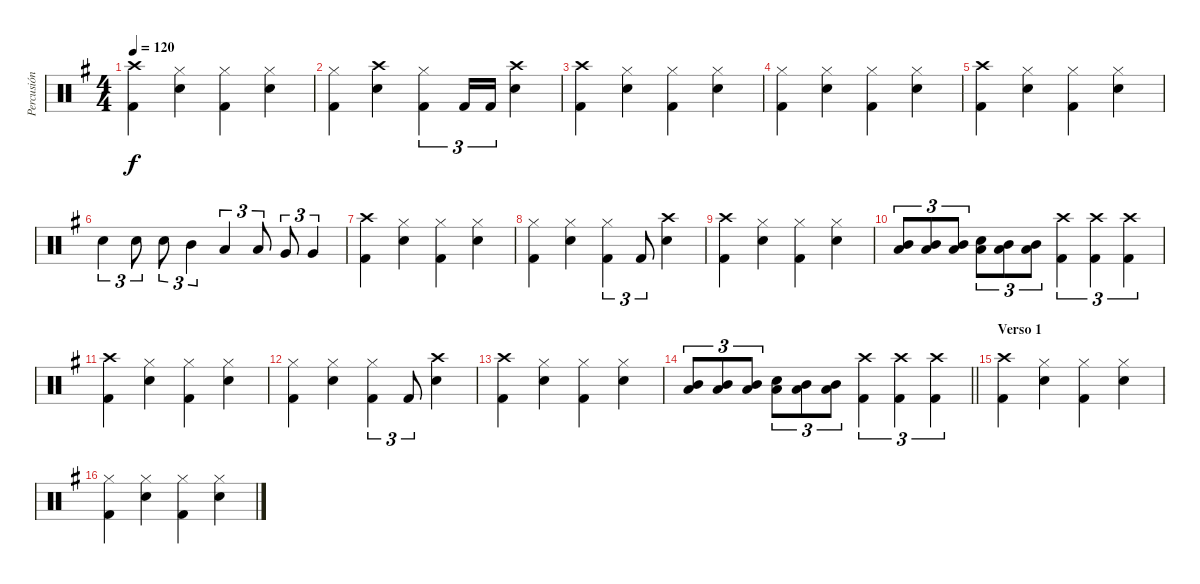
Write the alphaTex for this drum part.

\track ("Percusión" "Percusión") {instrument percussion}
\staff {score}
\articulation defaults
\ts (4 4)
\tempo 120
\clef neutral
\ks g
("Crash high (hit)" "Kick (hit) 2").4{dy f} ("Hi-Hat (closed)" "Snare (hit) 2").4 ("Hi-Hat (closed)" "Kick (hit) 2").4 ("Hi-Hat (closed)" "Snare (hit) 2").4 |
("Hi-Hat (closed)" "Kick (hit) 2").4 ("Crash high (hit)" "Snare (hit) 2").4 ("Hi-Hat (closed)" "Kick (hit) 2").4{tu (3 2)} "Kick (hit) 2".16{tu (3 2)} "Kick (hit) 2".16{tu (3 2)} ("Crash high (hit)" "Snare (hit) 2").4 |
("Crash high (hit)" "Kick (hit) 2").4 ("Hi-Hat (closed)" "Snare (hit) 2").4 ("Hi-Hat (closed)" "Kick (hit) 2").4 ("Hi-Hat (closed)" "Snare (hit) 2").4 |
("Hi-Hat (closed)" "Kick (hit) 2").4 ("Hi-Hat (closed)" "Snare (hit) 2").4 ("Hi-Hat (closed)" "Kick (hit) 2").4 ("Hi-Hat (closed)" "Snare (hit) 2").4 |
("Crash high (hit)" "Kick (hit) 2").4 ("Hi-Hat (closed)" "Snare (hit) 2").4 ("Hi-Hat (closed)" "Kick (hit) 2").4 ("Hi-Hat (closed)" "Snare (hit) 2").4 |
"Snare (hit) 2".4{tu (3 2)} "Snare (hit) 2".8{tu (3 2)} "Snare (hit) 2".8{tu (3 2)} "Mid Tom (hit)".4{tu (3 2)} "Low Tom (hit)".4{tu (3 2)} "Low Tom (hit)".8{tu (3 2)} "Very Low Tom (hit)".8{tu (3 2)} "Very Low Tom (hit)".4{tu (3 2)} |
("Crash high (hit)" "Kick (hit) 2").4 ("Hi-Hat (closed)" "Snare (hit) 2").4 ("Hi-Hat (closed)" "Kick (hit) 2").4 ("Hi-Hat (closed)" "Snare (hit) 2").4 |
("Hi-Hat (closed)" "Kick (hit) 2").4 ("Hi-Hat (closed)" "Snare (hit) 2").4 ("Hi-Hat (closed)" "Kick (hit) 2").4{tu (3 2)} "Kick (hit) 2".8{tu (3 2)} ("Crash high (hit)" "Snare (hit) 2").4 |
("Crash high (hit)" "Kick (hit) 2").4 ("Hi-Hat (closed)" "Snare (hit) 2").4 ("Hi-Hat (closed)" "Kick (hit) 2").4 ("Hi-Hat (closed)" "Snare (hit) 2").4 |
("Low Tom (hit)" "Mid Tom (hit)").8{tu (3 2)} ("Low Tom (hit)" "Mid Tom (hit)").8{tu (3 2)} ("Low Tom (hit)" "Mid Tom (hit)").8{tu (3 2)} ("Low Tom (hit)" "Snare (hit) 2").8{tu (3 2)} ("Low Tom (hit)" "Mid Tom (hit)").8{tu (3 2)} ("Low Tom (hit)" "Mid Tom (hit)").8{tu (3 2)} ("Crash high (hit)" "Kick (hit) 2").4{tu (3 2)} ("Crash high (hit)" "Kick (hit) 2").4{tu (3 2)} ("Crash high (hit)" "Kick (hit) 2").4{tu (3 2)} |
("Crash high (hit)" "Kick (hit) 2").4 ("Hi-Hat (closed)" "Snare (hit) 2").4 ("Hi-Hat (closed)" "Kick (hit) 2").4 ("Hi-Hat (closed)" "Snare (hit) 2").4 |
("Hi-Hat (closed)" "Kick (hit) 2").4 ("Hi-Hat (closed)" "Snare (hit) 2").4 ("Hi-Hat (closed)" "Kick (hit) 2").4{tu (3 2)} "Kick (hit) 2".8{tu (3 2)} ("Crash high (hit)" "Snare (hit) 2").4 |
("Crash high (hit)" "Kick (hit) 2").4 ("Hi-Hat (closed)" "Snare (hit) 2").4 ("Hi-Hat (closed)" "Kick (hit) 2").4 ("Hi-Hat (closed)" "Snare (hit) 2").4 |
\barLineRight lightlight
("Low Tom (hit)" "Mid Tom (hit)").8{tu (3 2)} ("Low Tom (hit)" "Mid Tom (hit)").8{tu (3 2)} ("Low Tom (hit)" "Mid Tom (hit)").8{tu (3 2)} ("Low Tom (hit)" "Snare (hit) 2").8{tu (3 2)} ("Low Tom (hit)" "Mid Tom (hit)").8{tu (3 2)} ("Low Tom (hit)" "Mid Tom (hit)").8{tu (3 2)} ("Crash high (hit)" "Kick (hit) 2").4{tu (3 2)} ("Crash high (hit)" "Kick (hit) 2").4{tu (3 2)} ("Crash high (hit)" "Kick (hit) 2").4{tu (3 2)} |
\section ("" "Verso 1")
("Crash high (hit)" "Kick (hit) 2").4 ("Hi-Hat (closed)" "Snare (hit) 2").4 ("Hi-Hat (closed)" "Kick (hit) 2").4 ("Hi-Hat (closed)" "Snare (hit) 2").4 |
("Hi-Hat (closed)" "Kick (hit) 2").4 ("Hi-Hat (closed)" "Snare (hit) 2").4 ("Hi-Hat (closed)" "Kick (hit) 2").4 ("Hi-Hat (closed)" "Snare (hit) 2").4
